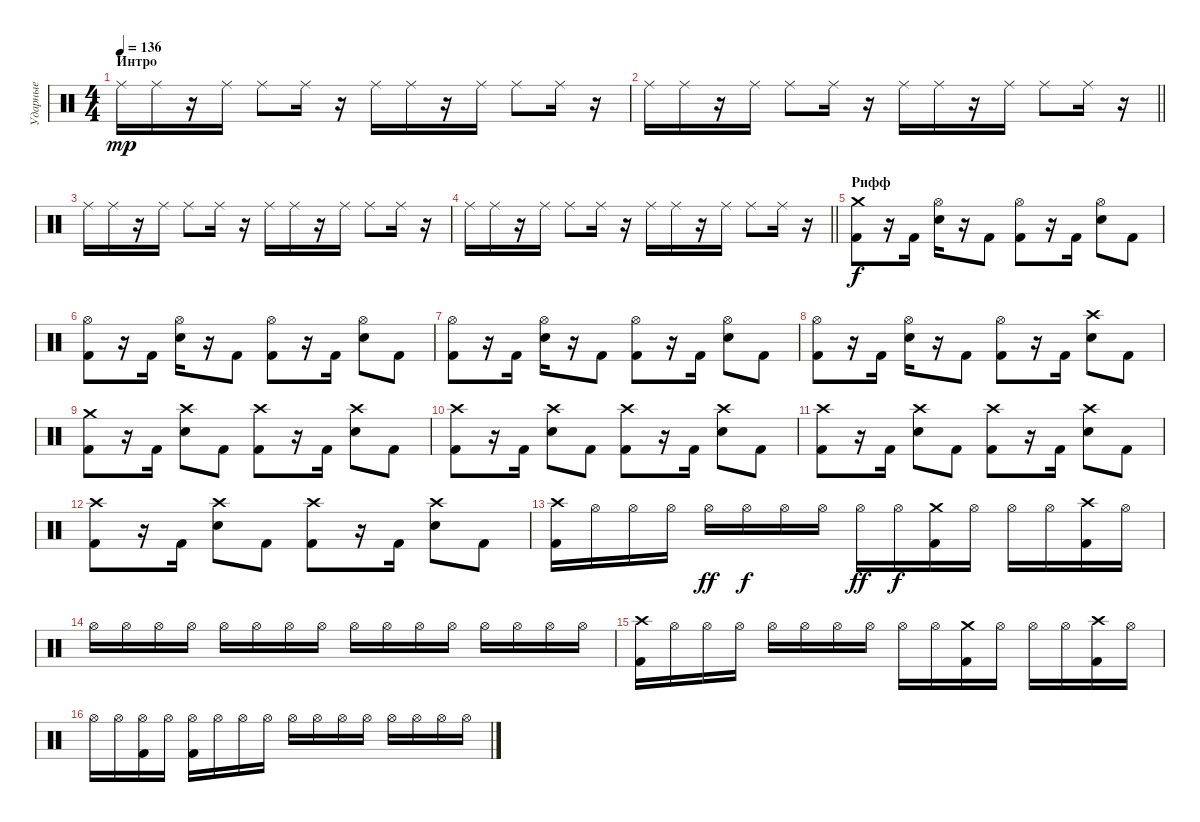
\track ("Ударные" "Ударные") {instrument percussion}
\staff {score}
\articulation defaults
\ts (4 4)
\section ("" "Интро")
\tempo 136
\clef neutral
\ks c "Ride (middle)".16{dy mp} "Ride (middle)".16
r.16 "Ride (middle)".16 "Ride (middle)".8 "Ride (middle)".16 r.16 "Ride (middle)".16 "Ride (middle)".16 r.16 "Ride (middle)".16 "Ride (middle)".8 "Ride (middle)".16 r.16 |
\barLineRight lightlight "Ride (middle)".16 "Ride (middle)".16
r.16 "Ride (middle)".16 "Ride (middle)".8 "Ride (middle)".16 r.16 "Ride (middle)".16 "Ride (middle)".16 r.16 "Ride (middle)".16 "Ride (middle)".8 "Ride (middle)".16 r.16 |
\section ("" "")
"Ride (middle)".16 "Ride (middle)".16 r.16 "Ride (middle)".16 "Ride (middle)".8 "Ride (middle)".16 r.16 "Ride (middle)".16 "Ride (middle)".16 r.16 "Ride (middle)".16 "Ride (middle)".8 "Ride (middle)".16 r.16 |
\barLineRight lightlight "Ride (middle)".16 "Ride (middle)".16
r.16 "Ride (middle)".16 "Ride (middle)".8 "Ride (middle)".16 r.16 "Ride (middle)".16 "Ride (middle)".16 r.16 "Ride (middle)".16 "Ride (middle)".8 "Ride (middle)".16 r.16 |
\section ("" "Рифф")
("Crash medium (hit)" "Kick (hit) 2").8{dy f} r.16 "Kick (hit) 2".16 ("Hi-Hat (open)" "Snare (hit) 2").16 r.16 "Kick (hit) 2".8 ("Hi-Hat (open)" "Kick (hit) 2").8 r.16 "Kick (hit) 2".16 ("Hi-Hat (open)" "Snare (hit) 2").8 "Kick (hit) 2".8 |
("Hi-Hat (open)" "Kick (hit) 2").8 r.16 "Kick (hit) 2".16 ("Hi-Hat (open)" "Snare (hit) 2").16 r.16 "Kick (hit) 2".8 ("Hi-Hat (open)" "Kick (hit) 2").8 r.16 "Kick (hit) 2".16 ("Hi-Hat (open)" "Snare (hit) 2").8 "Kick (hit) 2".8 |
("Hi-Hat (open)" "Kick (hit) 2").8 r.16 "Kick (hit) 2".16 ("Hi-Hat (open)" "Snare (hit) 2").16 r.16 "Kick (hit) 2".8 ("Hi-Hat (open)" "Kick (hit) 2").8 r.16 "Kick (hit) 2".16 ("Hi-Hat (open)" "Snare (hit) 2").8 "Kick (hit) 2".8 |
("Hi-Hat (open)" "Kick (hit) 2").8 r.16 "Kick (hit) 2".16 ("Hi-Hat (open)" "Snare (hit) 2").16 r.16 "Kick (hit) 2".8 ("Hi-Hat (open)" "Kick (hit) 2").8 r.16 "Kick (hit) 2".16 ("Crash high (hit)" "Snare (hit) 2").8 "Kick (hit) 2".8 |
("Crash medium (hit)" "Kick (hit) 2").8 r.16 "Kick (hit) 2".16 ("Crash high (hit)" "Snare (hit) 2").8 "Kick (hit) 2".8 ("Crash high (hit)" "Kick (hit) 2").8 r.16 "Kick (hit) 2".16 ("Crash high (hit)" "Snare (hit) 2").8 "Kick (hit) 2".8 |
("Crash high (hit)" "Kick (hit) 2").8 r.16 "Kick (hit) 2".16 ("Crash high (hit)" "Snare (hit) 2").8 "Kick (hit) 2".8 ("Crash high (hit)" "Kick (hit) 2").8 r.16 "Kick (hit) 2".16 ("Crash high (hit)" "Snare (hit) 2").8 "Kick (hit) 2".8 |
("Crash high (hit)" "Kick (hit) 2").8 r.16 "Kick (hit) 2".16 ("Crash high (hit)" "Snare (hit) 2").8 "Kick (hit) 2".8 ("Crash high (hit)" "Kick (hit) 2").8 r.16 "Kick (hit) 2".16 ("Crash high (hit)" "Snare (hit) 2").8 "Kick (hit) 2".8 |
("Crash high (hit)" "Kick (hit) 2").8 r.16 "Kick (hit) 2".16 ("Crash high (hit)" "Snare (hit) 2").8 "Kick (hit) 2".8 ("Crash high (hit)" "Kick (hit) 2").8 r.16 "Kick (hit) 2".16 ("Crash high (hit)" "Snare (hit) 2").8 "Kick (hit) 2".8 |
("Crash high (hit)" "Kick (hit) 2").16 "Hi-Hat (open)".16 "Hi-Hat (open)".16 "Hi-Hat (open)".16 "Hi-Hat (open)".16{dy ff} "Hi-Hat (open)".16{dy f} "Hi-Hat (open)".16 "Hi-Hat (open)".16 "Hi-Hat (open)".16{dy ff} "Hi-Hat (open)".16{dy f} ("Crash medium (hit)" "Kick (hit) 2").16 "Hi-Hat (open)".16 "Hi-Hat (open)".16 "Hi-Hat (open)".16 ("Crash high (hit)" "Kick (hit) 2").16 "Hi-Hat (open)".16 |
"Hi-Hat (open)".16 "Hi-Hat (open)".16 "Hi-Hat (open)".16 "Hi-Hat (open)".16 "Hi-Hat (open)".16 "Hi-Hat (open)".16 "Hi-Hat (open)".16 "Hi-Hat (open)".16 "Hi-Hat (open)".16 "Hi-Hat (open)".16 "Hi-Hat (open)".16 "Hi-Hat (open)".16 "Hi-Hat (open)".16 "Hi-Hat (open)".16 "Hi-Hat (open)".16 "Hi-Hat (open)".16 |
("Crash high (hit)" "Kick (hit) 2").16 "Hi-Hat (open)".16 "Hi-Hat (open)".16 "Hi-Hat (open)".16 "Hi-Hat (open)".16 "Hi-Hat (open)".16 "Hi-Hat (open)".16 "Hi-Hat (open)".16 "Hi-Hat (open)".16 "Hi-Hat (open)".16 ("Crash medium (hit)" "Kick (hit) 2").16 "Hi-Hat (open)".16 "Hi-Hat (open)".16 "Hi-Hat (open)".16 ("Crash high (hit)" "Kick (hit) 2").16 "Hi-Hat (open)".16 |
"Hi-Hat (open)".16 "Hi-Hat (open)".16 ("Hi-Hat (open)" "Kick (hit) 2").16 "Hi-Hat (open)".16 ("Hi-Hat (open)" "Kick (hit) 2").16 "Hi-Hat (open)".16 "Hi-Hat (open)".16 "Hi-Hat (open)".16 "Hi-Hat (open)".16 "Hi-Hat (open)".16 "Hi-Hat (open)".16 "Hi-Hat (open)".16 "Hi-Hat (open)".16 "Hi-Hat (open)".16 "Hi-Hat (open)".16 "Hi-Hat (open)".16
